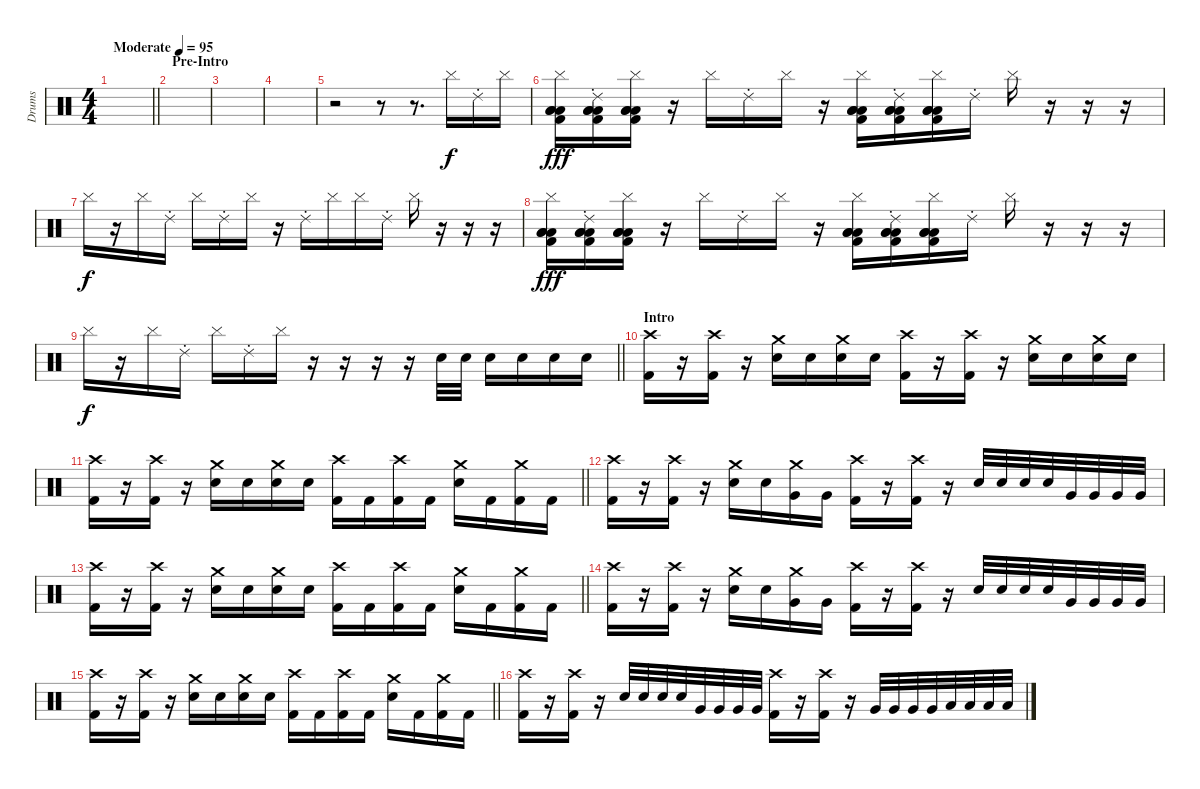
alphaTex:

\track ("Drums" "Drums") {instrument percussion}
\staff {score}
\articulation defaults
\ts (4 4)
\tempo (95 "Moderate")
\clef neutral
\barLineRight lightlight
\ks c
|
\section ("" "Pre-Intro")
|
|
|
r.2 r.8 r.8{d} "Cymbal (hit)".16 "Ride (choke) 2".16 "Cymbal (hit)".16 |
("Kick (hit) 2" "Low Tom (hit)" "Low Tom (hit)" "Cymbal (hit)" "Low Tom (hit)").16{dy fff} ("Kick (hit) 2" "Low Tom (hit)" "Low Tom (hit)" "Ride (choke) 2" "Low Tom (hit)").16 ("Kick (hit) 2" "Low Tom (hit)" "Low Tom (hit)" "Cymbal (hit)" "Low Tom (hit)").16 r.16 "Cymbal (hit)".16 "Ride (choke) 2".16 "Cymbal (hit)".16 r.16 ("Kick (hit) 2" "Low Tom (hit)" "Low Tom (hit)" "Cymbal (hit)" "Low Tom (hit)").16 ("Kick (hit) 2" "Low Tom (hit)" "Low Tom (hit)" "Ride (choke) 2" "Low Tom (hit)").16 ("Kick (hit) 2" "Low Tom (hit)" "Low Tom (hit)" "Cymbal (hit)" "Low Tom (hit)").16 "Ride (choke) 2".16 "Cymbal (hit)".16 r.16 r.16 r.16 |
"Cymbal (hit)".16{dy f} r.16 "Cymbal (hit)".16 "Ride (choke) 2".16 "Cymbal (hit)".16 "Ride (choke) 2".16 "Cymbal (hit)".16 r.16 "Ride (choke) 2".16 "Cymbal (hit)".16 "Cymbal (hit)".16 "Ride (choke) 2".16 "Cymbal (hit)".16 r.16 r.16 r.16 |
("Kick (hit) 2" "Low Tom (hit)" "Low Tom (hit)" "Cymbal (hit)" "Low Tom (hit)").16{dy fff} ("Kick (hit) 2" "Low Tom (hit)" "Low Tom (hit)" "Ride (choke) 2" "Low Tom (hit)").16 ("Kick (hit) 2" "Low Tom (hit)" "Low Tom (hit)" "Cymbal (hit)" "Low Tom (hit)").16 r.16 "Cymbal (hit)".16 "Ride (choke) 2".16 "Cymbal (hit)".16 r.16 ("Kick (hit) 2" "Low Tom (hit)" "Low Tom (hit)" "Cymbal (hit)" "Low Tom (hit)").16 ("Kick (hit) 2" "Low Tom (hit)" "Low Tom (hit)" "Ride (choke) 2" "Low Tom (hit)").16 ("Kick (hit) 2" "Low Tom (hit)" "Low Tom (hit)" "Cymbal (hit)" "Low Tom (hit)").16 "Ride (choke) 2".16 "Cymbal (hit)".16 r.16 r.16 r.16 |
\barLineRight lightlight "Cymbal (hit)".16{dy f}
r.16 "Cymbal (hit)".16 "Ride (choke) 2".16 "Cymbal (hit)".16 "Ride (choke) 2".16 "Cymbal (hit)".16 r.16 r.16 r.16 r.16 "Electric Snare (hit)".32 "Electric Snare (hit)".32 "Electric Snare (hit)".16 "Electric Snare (hit)".16 "Electric Snare (hit)".16 "Electric Snare (hit)".16 |
\section ("" "Intro")
("Crash high (hit)" "Kick (hit) 2").16 r.16 ("Crash high (hit)" "Kick (hit) 2").16 r.16 ("Crash medium (hit)" "Electric Snare (hit)").16 "Electric Snare (hit)".16 ("Crash medium (hit)" "Electric Snare (hit)").16 "Electric Snare (hit)".16 ("Crash high (hit)" "Kick (hit) 2").16 r.16 ("Crash high (hit)" "Kick (hit) 2").16 r.16 ("Crash medium (hit)" "Electric Snare (hit)").16 "Electric Snare (hit)".16 ("Crash medium (hit)" "Electric Snare (hit)").16 "Electric Snare (hit)".16 |
\barLineRight lightlight
("Crash high (hit)" "Kick (hit) 2").16 r.16 ("Crash high (hit)" "Kick (hit) 2").16 r.16 ("Crash medium (hit)" "Electric Snare (hit)").16 "Electric Snare (hit)".16 ("Crash medium (hit)" "Electric Snare (hit)").16 "Electric Snare (hit)".16 ("Crash high (hit)" "Kick (hit) 2").16 "Kick (hit) 2".16 ("Crash high (hit)" "Kick (hit) 2").16 "Kick (hit) 2".16 ("Crash medium (hit)" "Electric Snare (hit)").16 "Kick (hit) 2".16 ("Crash medium (hit)" "Kick (hit) 2").16 "Kick (hit) 2".16 |
("Crash high (hit)" "Kick (hit) 2").16 r.16 ("Crash high (hit)" "Kick (hit) 2").16 r.16 ("Crash medium (hit)" "Electric Snare (hit)").16 "Electric Snare (hit)".16 ("Crash medium (hit)" "Very Low Tom (hit)").16 "Very Low Tom (hit)".16 ("Crash high (hit)" "Kick (hit) 2").16 r.16 ("Crash high (hit)" "Kick (hit) 2").16 r.16 "Electric Snare (hit)".32 "Electric Snare (hit)".32 "Electric Snare (hit)".32 "Electric Snare (hit)".32 "Very Low Tom (hit)".32 "Very Low Tom (hit)".32 "Very Low Tom (hit)".32 "Very Low Tom (hit)".32 |
\barLineRight lightlight
("Crash high (hit)" "Kick (hit) 2").16 r.16 ("Crash high (hit)" "Kick (hit) 2").16 r.16 ("Crash medium (hit)" "Electric Snare (hit)").16 "Electric Snare (hit)".16 ("Crash medium (hit)" "Electric Snare (hit)").16 "Electric Snare (hit)".16 ("Crash high (hit)" "Kick (hit) 2").16 "Kick (hit) 2".16 ("Crash high (hit)" "Kick (hit) 2").16 "Kick (hit) 2".16 ("Crash medium (hit)" "Electric Snare (hit)").16 "Kick (hit) 2".16 ("Crash medium (hit)" "Kick (hit) 2").16 "Kick (hit) 2".16 |
("Crash high (hit)" "Kick (hit) 2").16 r.16 ("Crash high (hit)" "Kick (hit) 2").16 r.16 ("Crash medium (hit)" "Electric Snare (hit)").16 "Electric Snare (hit)".16 ("Crash medium (hit)" "Very Low Tom (hit)").16 "Very Low Tom (hit)".16 ("Crash high (hit)" "Kick (hit) 2").16 r.16 ("Crash high (hit)" "Kick (hit) 2").16 r.16 "Electric Snare (hit)".32 "Electric Snare (hit)".32 "Electric Snare (hit)".32 "Electric Snare (hit)".32 "Very Low Tom (hit)".32 "Very Low Tom (hit)".32 "Very Low Tom (hit)".32 "Very Low Tom (hit)".32 |
\barLineRight lightlight
("Crash high (hit)" "Kick (hit) 2").16 r.16 ("Crash high (hit)" "Kick (hit) 2").16 r.16 ("Crash medium (hit)" "Electric Snare (hit)").16 "Electric Snare (hit)".16 ("Crash medium (hit)" "Electric Snare (hit)").16 "Electric Snare (hit)".16 ("Crash high (hit)" "Kick (hit) 2").16 "Kick (hit) 2".16 ("Crash high (hit)" "Kick (hit) 2").16 "Kick (hit) 2".16 ("Crash medium (hit)" "Electric Snare (hit)").16 "Kick (hit) 2".16 ("Crash medium (hit)" "Kick (hit) 2").16 "Kick (hit) 2".16 |
("Crash high (hit)" "Kick (hit) 2").16 r.16 ("Crash high (hit)" "Kick (hit) 2").16 r.16 "Electric Snare (hit)".32 "Electric Snare (hit)".32 "Electric Snare (hit)".32 "Electric Snare (hit)".32 "Very Low Tom (hit)".32 "Very Low Tom (hit)".32 "Very Low Tom (hit)".32 "Very Low Tom (hit)".32 ("Crash high (hit)" "Kick (hit) 2").16 r.16 ("Crash high (hit)" "Kick (hit) 2").16 r.16 "Very Low Tom (hit)".32 "Very Low Tom (hit)".32 "Very Low Tom (hit)".32 "Very Low Tom (hit)".32 "Low Floor Tom (hit)".32 "Low Floor Tom (hit)".32 "Low Floor Tom (hit)".32 "Low Floor Tom (hit)".32
